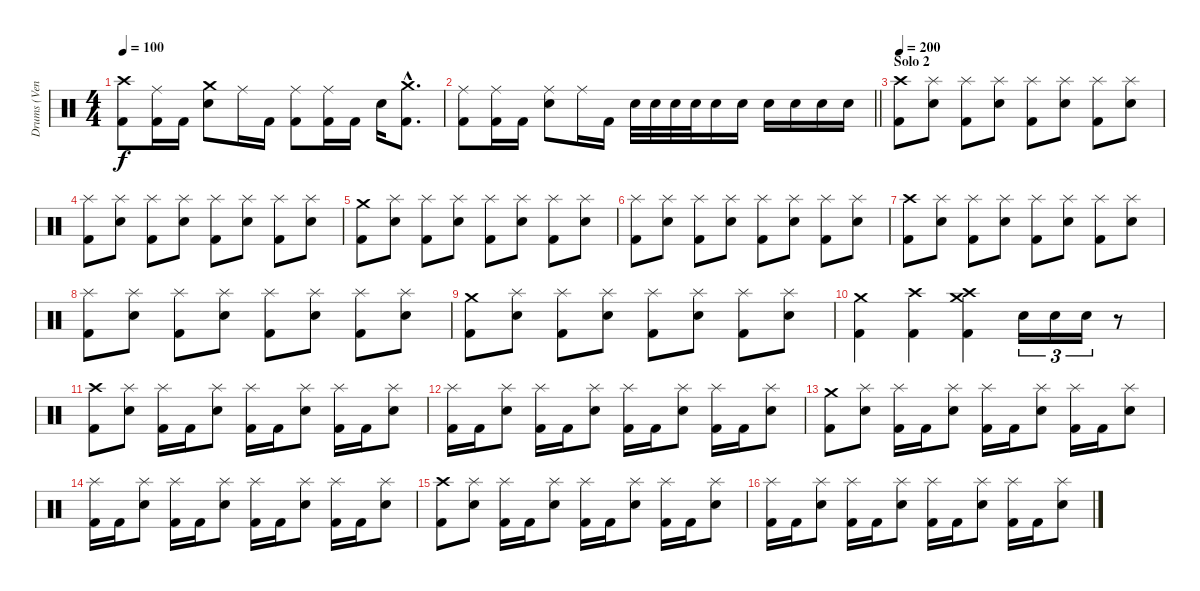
\track ("Drums (Ventor)" "Drums (Ven") {instrument percussion}
\staff {score}
\articulation defaults
\ts (4 4)
\tempo 100
\clef neutral
\ks c
("Crash high (hit)" "Kick (hit) 2").8{dy f} ("Ride (middle)" "Kick (hit) 2").16 "Kick (hit) 2".16 ("Electric Snare (hit)" "Crash medium (hit)").8 "Ride (middle)".16 "Kick (hit) 2".16 ("Ride (middle)" "Kick (hit) 2").8 ("Ride (middle)" "Kick (hit) 2").16 "Kick (hit) 2".16 "Electric Snare (hit)".16 ("Crash medium (hit)"{hac} "Kick (hit) 2"{hac}).8{d} |
\barLineRight lightlight
("Ride (middle)" "Kick (hit) 2").8 ("Ride (middle)" "Kick (hit) 2").16 "Kick (hit) 2".16 ("Electric Snare (hit)" "Ride (middle)").8 "Ride (middle)".16 "Kick (hit) 2".16 "Electric Snare (hit)".32 "Electric Snare (hit)".32 "Electric Snare (hit)".32 "Electric Snare (hit)".32 "Electric Snare (hit)".16 "Electric Snare (hit)".16 "Electric Snare (hit)".16 "Electric Snare (hit)".16 "Electric Snare (hit)".16 "Electric Snare (hit)".16 |
\section ("" "Solo 2")
\tempo 200
("Crash high (hit)" "Kick (hit) 2").8 ("Electric Snare (hit)" "Splash (hit)").8 ("Splash (hit)" "Kick (hit) 2").8 ("Electric Snare (hit)" "Splash (hit)").8 ("Splash (hit)" "Kick (hit) 2").8 ("Electric Snare (hit)" "Splash (hit)").8 ("Splash (hit)" "Kick (hit) 2").8 ("Electric Snare (hit)" "Splash (hit)").8 |
("Splash (hit)" "Kick (hit) 2").8 ("Electric Snare (hit)" "Splash (hit)").8 ("Splash (hit)" "Kick (hit) 2").8 ("Electric Snare (hit)" "Splash (hit)").8 ("Splash (hit)" "Kick (hit) 2").8 ("Electric Snare (hit)" "Splash (hit)").8 ("Splash (hit)" "Kick (hit) 2").8 ("Electric Snare (hit)" "Splash (hit)").8 |
("Crash medium (hit)" "Kick (hit) 2").8 ("Electric Snare (hit)" "Splash (hit)").8 ("Splash (hit)" "Kick (hit) 2").8 ("Electric Snare (hit)" "Splash (hit)").8 ("Splash (hit)" "Kick (hit) 2").8 ("Electric Snare (hit)" "Splash (hit)").8 ("Splash (hit)" "Kick (hit) 2").8 ("Electric Snare (hit)" "Splash (hit)").8 |
("Splash (hit)" "Kick (hit) 2").8 ("Electric Snare (hit)" "Splash (hit)").8 ("Splash (hit)" "Kick (hit) 2").8 ("Electric Snare (hit)" "Splash (hit)").8 ("Splash (hit)" "Kick (hit) 2").8 ("Electric Snare (hit)" "Splash (hit)").8 ("Splash (hit)" "Kick (hit) 2").8 ("Electric Snare (hit)" "Splash (hit)").8 |
("Crash high (hit)" "Kick (hit) 2").8 ("Electric Snare (hit)" "Splash (hit)").8 ("Splash (hit)" "Kick (hit) 2").8 ("Electric Snare (hit)" "Splash (hit)").8 ("Splash (hit)" "Kick (hit) 2").8 ("Electric Snare (hit)" "Splash (hit)").8 ("Splash (hit)" "Kick (hit) 2").8 ("Electric Snare (hit)" "Splash (hit)").8 |
("Splash (hit)" "Kick (hit) 2").8 ("Electric Snare (hit)" "Splash (hit)").8 ("Splash (hit)" "Kick (hit) 2").8 ("Electric Snare (hit)" "Splash (hit)").8 ("Splash (hit)" "Kick (hit) 2").8 ("Electric Snare (hit)" "Splash (hit)").8 ("Splash (hit)" "Kick (hit) 2").8 ("Electric Snare (hit)" "Splash (hit)").8 |
("Crash medium (hit)" "Kick (hit) 2").8 ("Electric Snare (hit)" "Splash (hit)").8 ("Splash (hit)" "Kick (hit) 2").8 ("Electric Snare (hit)" "Splash (hit)").8 ("Splash (hit)" "Kick (hit) 2").8 ("Electric Snare (hit)" "Splash (hit)").8 ("Splash (hit)" "Kick (hit) 2").8 ("Electric Snare (hit)" "Splash (hit)").8 |
("Crash medium (hit)" "Kick (hit) 2").4 ("Crash high (hit)" "Kick (hit) 2").4 ("Crash medium (hit)" "Crash high (hit)" "Kick (hit) 2").4 "Electric Snare (hit)".16{tu (3 2)} "Electric Snare (hit)".16{tu (3 2)} "Electric Snare (hit)".16{tu (3 2)} r.8 |
("Crash high (hit)" "Kick (hit) 2").8 ("Electric Snare (hit)" "Splash (hit)").8 ("Splash (hit)" "Kick (hit) 2").16 "Kick (hit) 2".16 ("Electric Snare (hit)" "Splash (hit)").8 ("Splash (hit)" "Kick (hit) 2").16 "Kick (hit) 2".16 ("Electric Snare (hit)" "Splash (hit)").8 ("Splash (hit)" "Kick (hit) 2").16 "Kick (hit) 2".16 ("Electric Snare (hit)" "Splash (hit)").8 |
("Splash (hit)" "Kick (hit) 2").16 "Kick (hit) 2".16 ("Electric Snare (hit)" "Splash (hit)").8 ("Splash (hit)" "Kick (hit) 2").16 "Kick (hit) 2".16 ("Electric Snare (hit)" "Splash (hit)").8 ("Splash (hit)" "Kick (hit) 2").16 "Kick (hit) 2".16 ("Electric Snare (hit)" "Splash (hit)").8 ("Splash (hit)" "Kick (hit) 2").16 "Kick (hit) 2".16 ("Electric Snare (hit)" "Splash (hit)").8 |
("Crash medium (hit)" "Kick (hit) 2").8 ("Electric Snare (hit)" "Splash (hit)").8 ("Splash (hit)" "Kick (hit) 2").16 "Kick (hit) 2".16 ("Electric Snare (hit)" "Splash (hit)").8 ("Splash (hit)" "Kick (hit) 2").16 "Kick (hit) 2".16 ("Electric Snare (hit)" "Splash (hit)").8 ("Splash (hit)" "Kick (hit) 2").16 "Kick (hit) 2".16 ("Electric Snare (hit)" "Splash (hit)").8 |
("Splash (hit)" "Kick (hit) 2").16 "Kick (hit) 2".16 ("Electric Snare (hit)" "Splash (hit)").8 ("Splash (hit)" "Kick (hit) 2").16 "Kick (hit) 2".16 ("Electric Snare (hit)" "Splash (hit)").8 ("Splash (hit)" "Kick (hit) 2").16 "Kick (hit) 2".16 ("Electric Snare (hit)" "Splash (hit)").8 ("Splash (hit)" "Kick (hit) 2").16 "Kick (hit) 2".16 ("Electric Snare (hit)" "Splash (hit)").8 |
("Crash high (hit)" "Kick (hit) 2").8 ("Electric Snare (hit)" "Splash (hit)").8 ("Splash (hit)" "Kick (hit) 2").16 "Kick (hit) 2".16 ("Electric Snare (hit)" "Splash (hit)").8 ("Splash (hit)" "Kick (hit) 2").16 "Kick (hit) 2".16 ("Electric Snare (hit)" "Splash (hit)").8 ("Splash (hit)" "Kick (hit) 2").16 "Kick (hit) 2".16 ("Electric Snare (hit)" "Splash (hit)").8 |
("Splash (hit)" "Kick (hit) 2").16 "Kick (hit) 2".16 ("Electric Snare (hit)" "Splash (hit)").8 ("Splash (hit)" "Kick (hit) 2").16 "Kick (hit) 2".16 ("Electric Snare (hit)" "Splash (hit)").8 ("Splash (hit)" "Kick (hit) 2").16 "Kick (hit) 2".16 ("Electric Snare (hit)" "Splash (hit)").8 ("Splash (hit)" "Kick (hit) 2").16 "Kick (hit) 2".16 ("Electric Snare (hit)" "Splash (hit)").8
